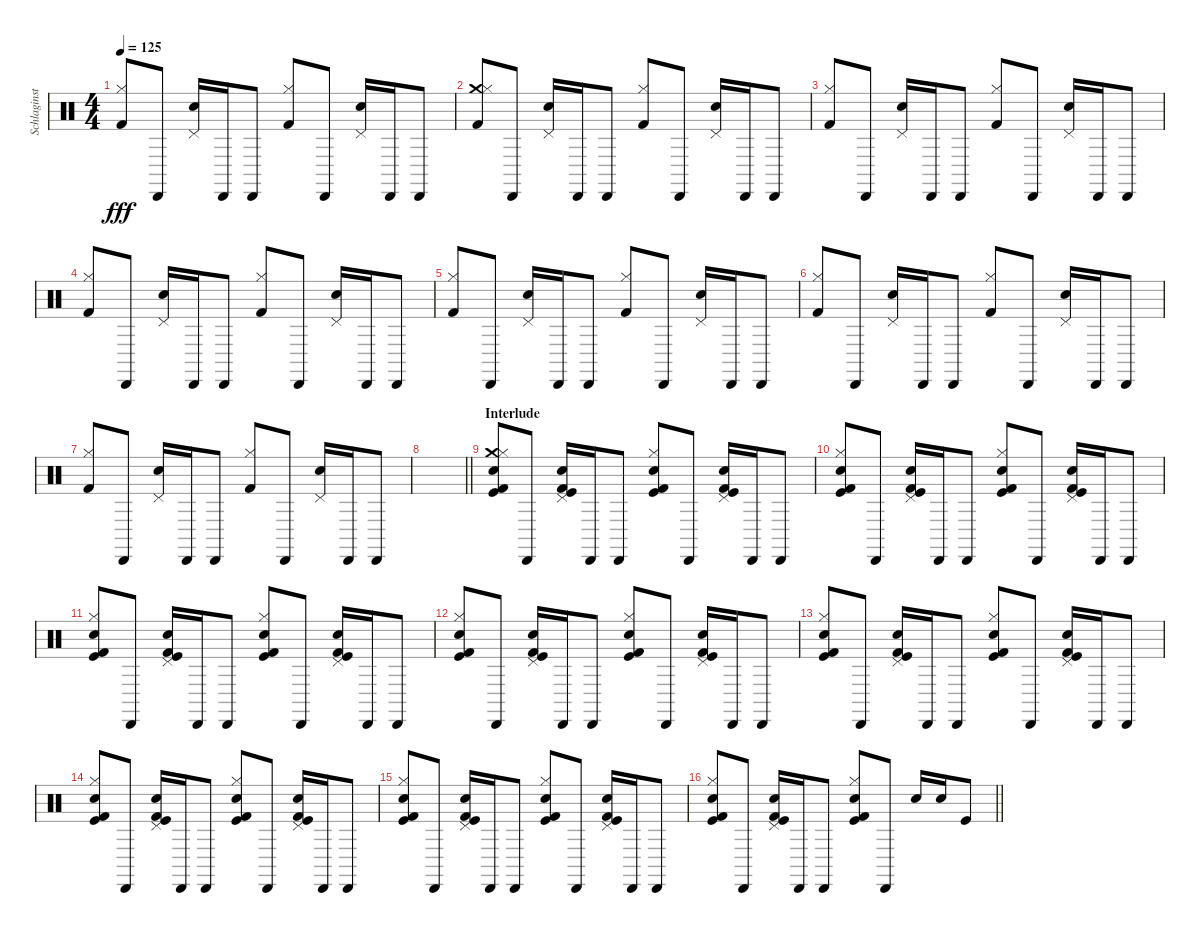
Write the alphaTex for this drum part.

\track ("Schlaginstrumente - Auswahl" "Schlaginst") {instrument percussion}
\staff {score}
\articulation defaults
\ts (4 4)
\tempo 125
\clef neutral
\ks c
("Hi-Hat (closed)" "Kick (hit) 2").8{dy fff} "Cabasa (hit)".8 ("Pedal Hi-Hat (hit)" "Hand Clap (hit)").16 "Cabasa (hit)".16 "Cabasa (hit)".8 ("Hi-Hat (closed)" "Kick (hit) 2").8 "Cabasa (hit)".8 ("Pedal Hi-Hat (hit)" "Hand Clap (hit)").16 "Cabasa (hit)".16 "Cabasa (hit)".8 |
("Crash medium (hit)" "Hi-Hat (closed)" "Kick (hit) 2").8 "Cabasa (hit)".8 ("Pedal Hi-Hat (hit)" "Hand Clap (hit)").16 "Cabasa (hit)".16 "Cabasa (hit)".8 ("Hi-Hat (closed)" "Kick (hit) 2").8 "Cabasa (hit)".8 ("Pedal Hi-Hat (hit)" "Hand Clap (hit)").16 "Cabasa (hit)".16 "Cabasa (hit)".8 |
("Hi-Hat (closed)" "Kick (hit) 2").8 "Cabasa (hit)".8 ("Pedal Hi-Hat (hit)" "Hand Clap (hit)").16 "Cabasa (hit)".16 "Cabasa (hit)".8 ("Hi-Hat (closed)" "Kick (hit) 2").8 "Cabasa (hit)".8 ("Pedal Hi-Hat (hit)" "Hand Clap (hit)").16 "Cabasa (hit)".16 "Cabasa (hit)".8 |
("Hi-Hat (closed)" "Kick (hit) 2").8 "Cabasa (hit)".8 ("Pedal Hi-Hat (hit)" "Hand Clap (hit)").16 "Cabasa (hit)".16 "Cabasa (hit)".8 ("Hi-Hat (closed)" "Kick (hit) 2").8 "Cabasa (hit)".8 ("Pedal Hi-Hat (hit)" "Hand Clap (hit)").16 "Cabasa (hit)".16 "Cabasa (hit)".8 |
("Hi-Hat (closed)" "Kick (hit) 2").8 "Cabasa (hit)".8 ("Pedal Hi-Hat (hit)" "Hand Clap (hit)").16 "Cabasa (hit)".16 "Cabasa (hit)".8 ("Hi-Hat (closed)" "Kick (hit) 2").8 "Cabasa (hit)".8 ("Pedal Hi-Hat (hit)" "Hand Clap (hit)").16 "Cabasa (hit)".16 "Cabasa (hit)".8 |
("Hi-Hat (closed)" "Kick (hit) 2").8 "Cabasa (hit)".8 ("Pedal Hi-Hat (hit)" "Hand Clap (hit)").16 "Cabasa (hit)".16 "Cabasa (hit)".8 ("Hi-Hat (closed)" "Kick (hit) 2").8 "Cabasa (hit)".8 ("Pedal Hi-Hat (hit)" "Hand Clap (hit)").16 "Cabasa (hit)".16 "Cabasa (hit)".8 |
("Hi-Hat (closed)" "Kick (hit) 2").8 "Cabasa (hit)".8 ("Pedal Hi-Hat (hit)" "Hand Clap (hit)").16 "Cabasa (hit)".16 "Cabasa (hit)".8 ("Hi-Hat (closed)" "Kick (hit) 2").8 "Cabasa (hit)".8 ("Pedal Hi-Hat (hit)" "Hand Clap (hit)").16 "Cabasa (hit)".16 "Cabasa (hit)".8 |
\barLineRight lightlight
|
\section ("" "Interlude")
("Crash medium (hit)" "Hi-Hat (closed)" "Hand Clap (hit)" "Kick (hit)" "Kick (hit) 2").8 "Cabasa (hit)".8 ("Pedal Hi-Hat (hit)" "Hand Clap (hit)" "Kick (hit)" "Kick (hit) 2").16 "Cabasa (hit)".16 "Cabasa (hit)".8 ("Hi-Hat (closed)" "Hand Clap (hit)" "Kick (hit)" "Kick (hit) 2").8 "Cabasa (hit)".8 ("Pedal Hi-Hat (hit)" "Hand Clap (hit)" "Kick (hit)" "Kick (hit) 2").16 "Cabasa (hit)".16 "Cabasa (hit)".8 |
("Hi-Hat (closed)" "Hand Clap (hit)" "Kick (hit)" "Kick (hit) 2").8 "Cabasa (hit)".8 ("Pedal Hi-Hat (hit)" "Hand Clap (hit)" "Kick (hit)" "Kick (hit) 2").16 "Cabasa (hit)".16 "Cabasa (hit)".8 ("Hi-Hat (closed)" "Hand Clap (hit)" "Kick (hit)" "Kick (hit) 2").8 "Cabasa (hit)".8 ("Pedal Hi-Hat (hit)" "Hand Clap (hit)" "Kick (hit)" "Kick (hit) 2").16 "Cabasa (hit)".16 "Cabasa (hit)".8 |
("Hi-Hat (closed)" "Hand Clap (hit)" "Kick (hit)" "Kick (hit) 2").8 "Cabasa (hit)".8 ("Pedal Hi-Hat (hit)" "Hand Clap (hit)" "Kick (hit)" "Kick (hit) 2").16 "Cabasa (hit)".16 "Cabasa (hit)".8 ("Hi-Hat (closed)" "Hand Clap (hit)" "Kick (hit)" "Kick (hit) 2").8 "Cabasa (hit)".8 ("Pedal Hi-Hat (hit)" "Hand Clap (hit)" "Kick (hit)" "Kick (hit) 2").16 "Cabasa (hit)".16 "Cabasa (hit)".8 |
("Hi-Hat (closed)" "Hand Clap (hit)" "Kick (hit)" "Kick (hit) 2").8 "Cabasa (hit)".8 ("Pedal Hi-Hat (hit)" "Hand Clap (hit)" "Kick (hit)" "Kick (hit) 2").16 "Cabasa (hit)".16 "Cabasa (hit)".8 ("Hi-Hat (closed)" "Hand Clap (hit)" "Kick (hit)" "Kick (hit) 2").8 "Cabasa (hit)".8 ("Pedal Hi-Hat (hit)" "Hand Clap (hit)" "Kick (hit)" "Kick (hit) 2").16 "Cabasa (hit)".16 "Cabasa (hit)".8 |
("Hi-Hat (closed)" "Hand Clap (hit)" "Kick (hit)" "Kick (hit) 2").8 "Cabasa (hit)".8 ("Pedal Hi-Hat (hit)" "Hand Clap (hit)" "Kick (hit)" "Kick (hit) 2").16 "Cabasa (hit)".16 "Cabasa (hit)".8 ("Hi-Hat (closed)" "Hand Clap (hit)" "Kick (hit)" "Kick (hit) 2").8 "Cabasa (hit)".8 ("Pedal Hi-Hat (hit)" "Hand Clap (hit)" "Kick (hit)" "Kick (hit) 2").16 "Cabasa (hit)".16 "Cabasa (hit)".8 |
("Hi-Hat (closed)" "Hand Clap (hit)" "Kick (hit)" "Kick (hit) 2").8 "Cabasa (hit)".8 ("Pedal Hi-Hat (hit)" "Hand Clap (hit)" "Kick (hit)" "Kick (hit) 2").16 "Cabasa (hit)".16 "Cabasa (hit)".8 ("Hi-Hat (closed)" "Hand Clap (hit)" "Kick (hit)" "Kick (hit) 2").8 "Cabasa (hit)".8 ("Pedal Hi-Hat (hit)" "Hand Clap (hit)" "Kick (hit)" "Kick (hit) 2").16 "Cabasa (hit)".16 "Cabasa (hit)".8 |
("Hi-Hat (closed)" "Hand Clap (hit)" "Kick (hit)" "Kick (hit) 2").8 "Cabasa (hit)".8 ("Pedal Hi-Hat (hit)" "Hand Clap (hit)" "Kick (hit)" "Kick (hit) 2").16 "Cabasa (hit)".16 "Cabasa (hit)".8 ("Hi-Hat (closed)" "Hand Clap (hit)" "Kick (hit)" "Kick (hit) 2").8 "Cabasa (hit)".8 ("Pedal Hi-Hat (hit)" "Hand Clap (hit)" "Kick (hit)" "Kick (hit) 2").16 "Cabasa (hit)".16 "Cabasa (hit)".8 |
\barLineRight lightlight
("Hi-Hat (closed)" "Hand Clap (hit)" "Kick (hit)" "Kick (hit) 2").8 "Cabasa (hit)".8 ("Pedal Hi-Hat (hit)" "Hand Clap (hit)" "Kick (hit)" "Kick (hit) 2").16 "Cabasa (hit)".16 "Cabasa (hit)".8 ("Hi-Hat (closed)" "Hand Clap (hit)" "Kick (hit)" "Kick (hit) 2").8 "Cabasa (hit)".8 "Snare (hit) 2".16 "Snare (hit) 2".16 "Kick (hit)".8
